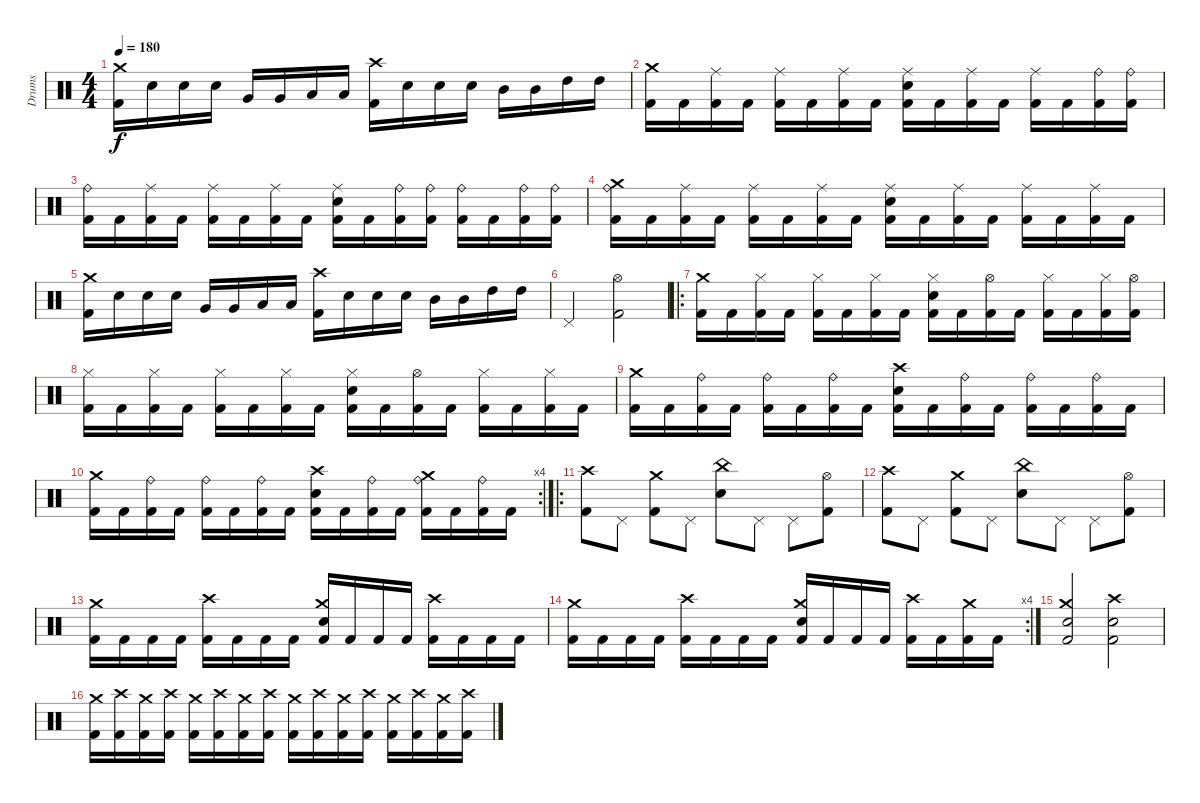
\track ("Drums" "Drums") {instrument percussion}
\staff {score}
\articulation defaults
\ts (4 4)
\tempo 180
\clef neutral
\ks c
("Kick (hit) 2" "Crash medium (hit)").16{dy f} "Electric Snare (hit)".16 "Electric Snare (hit)".16 "Electric Snare (hit)".16 "Very Low Tom (hit)".16 "Very Low Tom (hit)".16 "Low Tom (hit)".16 "Low Tom (hit)".16 ("Kick (hit) 2" "Crash high (hit)").16 "Electric Snare (hit)".16 "Electric Snare (hit)".16 "Electric Snare (hit)".16 "Mid Tom (hit)".16 "Mid Tom (hit)".16 "High Tom (hit)".16 "High Tom (hit)".16 |
("Kick (hit) 2" "Crash medium (hit)").16 "Kick (hit) 2".16 ("Kick (hit) 2" "Ride (middle)").16 "Kick (hit) 2".16 ("Kick (hit) 2" "Ride (middle)").16 "Kick (hit) 2".16 ("Kick (hit) 2" "Ride (middle)").16 "Kick (hit) 2".16 ("Kick (hit) 2" "Electric Snare (hit)" "Ride (middle)").16 "Kick (hit) 2".16 ("Kick (hit) 2" "Ride (middle)").16 "Kick (hit) 2".16 ("Kick (hit) 2" "Ride (middle)").16 "Kick (hit) 2".16 ("Kick (hit) 2" "Ride (bell)").16 ("Kick (hit) 2" "Ride (bell)").16 |
("Kick (hit) 2" "Ride (bell)").16 "Kick (hit) 2".16 ("Kick (hit) 2" "Ride (middle)").16 "Kick (hit) 2".16 ("Kick (hit) 2" "Ride (middle)").16 "Kick (hit) 2".16 ("Kick (hit) 2" "Ride (middle)").16 "Kick (hit) 2".16 ("Kick (hit) 2" "Electric Snare (hit)" "Ride (middle)").16 "Kick (hit) 2".16 ("Kick (hit) 2" "Ride (bell)").16 ("Kick (hit) 2" "Ride (bell)").16 ("Kick (hit) 2" "Ride (bell)").16 "Kick (hit) 2".16 ("Kick (hit) 2" "Ride (bell)").16 ("Kick (hit) 2" "Ride (bell)").16 |
("Kick (hit) 2" "Ride (bell)" "Crash medium (hit)").16 "Kick (hit) 2".16 ("Kick (hit) 2" "Ride (middle)").16 "Kick (hit) 2".16 ("Kick (hit) 2" "Ride (middle)").16 "Kick (hit) 2".16 ("Kick (hit) 2" "Ride (middle)").16 "Kick (hit) 2".16 ("Kick (hit) 2" "Electric Snare (hit)" "Ride (middle)").16 "Kick (hit) 2".16 ("Kick (hit) 2" "Ride (middle)").16 "Kick (hit) 2".16 ("Kick (hit) 2" "Ride (middle)").16 "Kick (hit) 2".16 ("Kick (hit) 2" "Ride (middle)").16 "Kick (hit) 2".16 |
("Kick (hit) 2" "Crash medium (hit)").16 "Electric Snare (hit)".16 "Electric Snare (hit)".16 "Electric Snare (hit)".16 "Very Low Tom (hit)".16 "Very Low Tom (hit)".16 "Low Tom (hit)".16 "Low Tom (hit)".16 ("Kick (hit) 2" "Crash high (hit)").16 "Electric Snare (hit)".16 "Electric Snare (hit)".16 "Electric Snare (hit)".16 "Mid Tom (hit)".16 "Mid Tom (hit)".16 "High Tom (hit)".16 "High Tom (hit)".16 |
"Pedal Hi-Hat (hit)".2 ("Kick (hit) 2" "Hi-Hat (open)").2 |
\ro
("Kick (hit) 2" "Crash medium (hit)").16 "Kick (hit) 2".16 ("Kick (hit) 2" "Hi-Hat (closed)").16 "Kick (hit) 2".16 ("Kick (hit) 2" "Hi-Hat (closed)").16 "Kick (hit) 2".16 ("Kick (hit) 2" "Hi-Hat (closed)").16 "Kick (hit) 2".16 ("Kick (hit) 2" "Electric Snare (hit)" "Hi-Hat (closed)").16 "Kick (hit) 2".16 ("Kick (hit) 2" "Hi-Hat (open)").16 "Kick (hit) 2".16 ("Kick (hit) 2" "Hi-Hat (closed)").16 "Kick (hit) 2".16 ("Kick (hit) 2" "Hi-Hat (closed)").16 ("Kick (hit) 2" "Hi-Hat (open)").16 |
("Kick (hit) 2" "Hi-Hat (closed)").16 "Kick (hit) 2".16 ("Kick (hit) 2" "Hi-Hat (closed)").16 "Kick (hit) 2".16 ("Kick (hit) 2" "Hi-Hat (closed)").16 "Kick (hit) 2".16 ("Kick (hit) 2" "Hi-Hat (closed)").16 "Kick (hit) 2".16 ("Kick (hit) 2" "Electric Snare (hit)" "Hi-Hat (closed)").16 "Kick (hit) 2".16 ("Kick (hit) 2" "Hi-Hat (open)").16 "Kick (hit) 2".16 ("Kick (hit) 2" "Hi-Hat (closed)").16 "Kick (hit) 2".16 ("Kick (hit) 2" "Hi-Hat (closed)").16 "Kick (hit) 2".16 |
("Kick (hit) 2" "Crash medium (hit)").16 "Kick (hit) 2".16 ("Kick (hit) 2" "Ride (bell)").16 "Kick (hit) 2".16 ("Kick (hit) 2" "Ride (bell)").16 "Kick (hit) 2".16 ("Kick (hit) 2" "Ride (bell)").16 "Kick (hit) 2".16 ("Kick (hit) 2" "Electric Snare (hit)" "Crash high (hit)").16 "Kick (hit) 2".16 ("Kick (hit) 2" "Ride (bell)").16 "Kick (hit) 2".16 ("Kick (hit) 2" "Ride (bell)").16 "Kick (hit) 2".16 ("Kick (hit) 2" "Ride (bell)").16 "Kick (hit) 2".16 |
\rc 4
("Kick (hit) 2" "Crash medium (hit)").16 "Kick (hit) 2".16 ("Kick (hit) 2" "Ride (bell)").16 "Kick (hit) 2".16 ("Kick (hit) 2" "Ride (bell)").16 "Kick (hit) 2".16 ("Kick (hit) 2" "Ride (bell)").16 "Kick (hit) 2".16 ("Kick (hit) 2" "Electric Snare (hit)" "Crash high (hit)").16 "Kick (hit) 2".16 ("Kick (hit) 2" "Ride (bell)").16 "Kick (hit) 2".16 ("Kick (hit) 2" "Ride (bell)" "Crash medium (hit)").16 "Kick (hit) 2".16 ("Kick (hit) 2" "Ride (bell)").16 "Kick (hit) 2".16 |
\ro
("Kick (hit) 2" "Crash high (hit)").8 "Pedal Hi-Hat (hit)".8 ("Kick (hit) 2" "Crash medium (hit)").8 "Pedal Hi-Hat (hit)".8 ("Electric Snare (hit)" "China (hit)").8 "Pedal Hi-Hat (hit)".8 "Pedal Hi-Hat (hit)".8 ("Kick (hit) 2" "Hi-Hat (open)").8 |
("Kick (hit) 2" "Crash high (hit)").8 "Pedal Hi-Hat (hit)".8 ("Kick (hit) 2" "Crash medium (hit)").8 "Pedal Hi-Hat (hit)".8 ("Electric Snare (hit)" "China (hit)").8 "Pedal Hi-Hat (hit)".8 "Pedal Hi-Hat (hit)".8 ("Kick (hit) 2" "Hi-Hat (open)").8 |
("Kick (hit) 2" "Crash medium (hit)").16 "Kick (hit) 2".16 "Kick (hit) 2".16 "Kick (hit) 2".16 ("Kick (hit) 2" "Crash high (hit)").16 "Kick (hit) 2".16 "Kick (hit) 2".16 "Kick (hit) 2".16 ("Kick (hit) 2" "Electric Snare (hit)" "Crash medium (hit)").16 "Kick (hit) 2".16 "Kick (hit) 2".16 "Kick (hit) 2".16 ("Kick (hit) 2" "Crash high (hit)").16 "Kick (hit) 2".16 "Kick (hit) 2".16 "Kick (hit) 2".16 |
\rc 4
("Kick (hit) 2" "Crash medium (hit)").16 "Kick (hit) 2".16 "Kick (hit) 2".16 "Kick (hit) 2".16 ("Kick (hit) 2" "Crash high (hit)").16 "Kick (hit) 2".16 "Kick (hit) 2".16 "Kick (hit) 2".16 ("Kick (hit) 2" "Electric Snare (hit)" "Crash medium (hit)").16 "Kick (hit) 2".16 "Kick (hit) 2".16 "Kick (hit) 2".16 ("Kick (hit) 2" "Crash high (hit)").16 "Kick (hit) 2".16 ("Kick (hit) 2" "Crash medium (hit)").16 "Kick (hit) 2".16 |
("Kick (hit) 2" "Electric Snare (hit)" "Crash medium (hit)").2 ("Kick (hit) 2" "Electric Snare (hit)" "Crash high (hit)").2 |
("Kick (hit) 2" "Crash medium (hit)").16 ("Kick (hit) 2" "Crash high (hit)").16 ("Kick (hit) 2" "Crash medium (hit)").16 ("Kick (hit) 2" "Crash high (hit)").16 ("Kick (hit) 2" "Crash medium (hit)").16 ("Kick (hit) 2" "Crash high (hit)").16 ("Kick (hit) 2" "Crash medium (hit)").16 ("Kick (hit) 2" "Crash high (hit)").16 ("Kick (hit) 2" "Crash medium (hit)").16 ("Kick (hit) 2" "Crash high (hit)").16 ("Kick (hit) 2" "Crash medium (hit)").16 ("Kick (hit) 2" "Crash high (hit)").16 ("Kick (hit) 2" "Crash medium (hit)").16 ("Kick (hit) 2" "Crash high (hit)").16 ("Kick (hit) 2" "Crash medium (hit)").16 ("Kick (hit) 2" "Crash high (hit)").16
